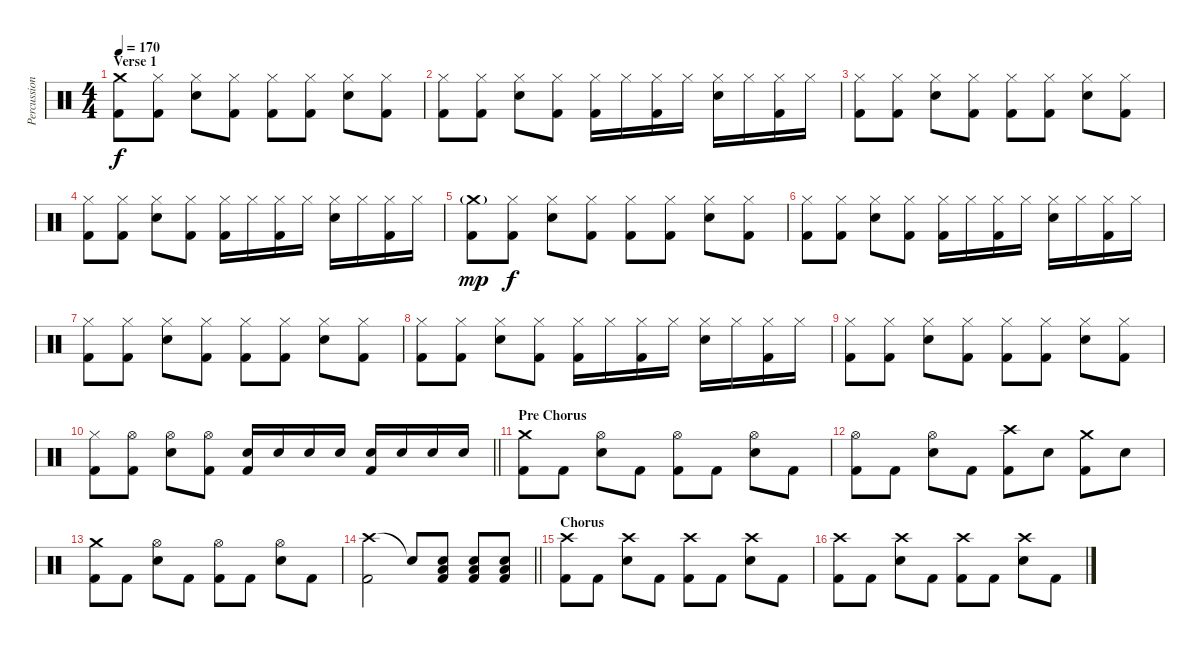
\track ("Percussion" "Percussion") {instrument percussion}
\staff {score}
\articulation defaults
\ts (4 4)
\section ("" "Verse 1")
\tempo 170
\clef neutral
\ks c
("Crash medium (hit)" "Kick (hit) 2").8{dy f} ("Hi-Hat (closed)" "Kick (hit) 2").8 ("Hi-Hat (closed)" "Electric Snare (hit)").8 ("Hi-Hat (closed)" "Kick (hit) 2").8 ("Hi-Hat (closed)" "Kick (hit) 2").8 ("Hi-Hat (closed)" "Kick (hit) 2").8 ("Hi-Hat (closed)" "Electric Snare (hit)").8 ("Hi-Hat (closed)" "Kick (hit) 2").8 |
("Hi-Hat (closed)" "Kick (hit) 2").8 ("Hi-Hat (closed)" "Kick (hit) 2").8 ("Hi-Hat (closed)" "Electric Snare (hit)").8 ("Hi-Hat (closed)" "Kick (hit) 2").8 ("Hi-Hat (closed)" "Kick (hit) 2").16 "Hi-Hat (closed)".16 ("Hi-Hat (closed)" "Kick (hit) 2").16 "Hi-Hat (closed)".16 ("Hi-Hat (closed)" "Electric Snare (hit)").16 "Hi-Hat (closed)".16 ("Hi-Hat (closed)" "Kick (hit) 2").16 "Hi-Hat (closed)".16 |
("Hi-Hat (closed)" "Kick (hit) 2").8 ("Hi-Hat (closed)" "Kick (hit) 2").8 ("Hi-Hat (closed)" "Electric Snare (hit)").8 ("Hi-Hat (closed)" "Kick (hit) 2").8 ("Hi-Hat (closed)" "Kick (hit) 2").8 ("Hi-Hat (closed)" "Kick (hit) 2").8 ("Hi-Hat (closed)" "Electric Snare (hit)").8 ("Hi-Hat (closed)" "Kick (hit) 2").8 |
("Hi-Hat (closed)" "Kick (hit) 2").8 ("Hi-Hat (closed)" "Kick (hit) 2").8 ("Hi-Hat (closed)" "Electric Snare (hit)").8 ("Hi-Hat (closed)" "Kick (hit) 2").8 ("Hi-Hat (closed)" "Kick (hit) 2").16 "Hi-Hat (closed)".16 ("Hi-Hat (closed)" "Kick (hit) 2").16 "Hi-Hat (closed)".16 ("Hi-Hat (closed)" "Electric Snare (hit)").16 "Hi-Hat (closed)".16 ("Hi-Hat (closed)" "Kick (hit) 2").16 "Hi-Hat (closed)".16 |
("Crash medium (hit)"{g} "Kick (hit) 2").8{dy mp} ("Hi-Hat (closed)" "Kick (hit) 2").8{dy f} ("Hi-Hat (closed)" "Electric Snare (hit)").8 ("Hi-Hat (closed)" "Kick (hit) 2").8 ("Hi-Hat (closed)" "Kick (hit) 2").8 ("Hi-Hat (closed)" "Kick (hit) 2").8 ("Hi-Hat (closed)" "Electric Snare (hit)").8 ("Hi-Hat (closed)" "Kick (hit) 2").8 |
("Hi-Hat (closed)" "Kick (hit) 2").8 ("Hi-Hat (closed)" "Kick (hit) 2").8 ("Hi-Hat (closed)" "Electric Snare (hit)").8 ("Hi-Hat (closed)" "Kick (hit) 2").8 ("Hi-Hat (closed)" "Kick (hit) 2").16 "Hi-Hat (closed)".16 ("Hi-Hat (closed)" "Kick (hit) 2").16 "Hi-Hat (closed)".16 ("Hi-Hat (closed)" "Electric Snare (hit)").16 "Hi-Hat (closed)".16 ("Hi-Hat (closed)" "Kick (hit) 2").16 "Hi-Hat (closed)".16 |
("Hi-Hat (closed)" "Kick (hit) 2").8 ("Hi-Hat (closed)" "Kick (hit) 2").8 ("Hi-Hat (closed)" "Electric Snare (hit)").8 ("Hi-Hat (closed)" "Kick (hit) 2").8 ("Hi-Hat (closed)" "Kick (hit) 2").8 ("Hi-Hat (closed)" "Kick (hit) 2").8 ("Hi-Hat (closed)" "Electric Snare (hit)").8 ("Hi-Hat (closed)" "Kick (hit) 2").8 |
("Hi-Hat (closed)" "Kick (hit) 2").8 ("Hi-Hat (closed)" "Kick (hit) 2").8 ("Hi-Hat (closed)" "Electric Snare (hit)").8 ("Hi-Hat (closed)" "Kick (hit) 2").8 ("Hi-Hat (closed)" "Kick (hit) 2").16 "Hi-Hat (closed)".16 ("Hi-Hat (closed)" "Kick (hit) 2").16 "Hi-Hat (closed)".16 ("Hi-Hat (closed)" "Electric Snare (hit)").16 "Hi-Hat (closed)".16 ("Hi-Hat (closed)" "Kick (hit) 2").16 "Hi-Hat (closed)".16 |
("Hi-Hat (closed)" "Kick (hit) 2").8 ("Hi-Hat (closed)" "Kick (hit) 2").8 ("Hi-Hat (closed)" "Electric Snare (hit)").8 ("Hi-Hat (closed)" "Kick (hit) 2").8 ("Hi-Hat (closed)" "Kick (hit) 2").8 ("Hi-Hat (closed)" "Kick (hit) 2").8 ("Hi-Hat (closed)" "Electric Snare (hit)").8 ("Hi-Hat (closed)" "Kick (hit) 2").8 |
\barLineRight lightlight
("Hi-Hat (closed)" "Kick (hit) 2").8 ("Hi-Hat (open)" "Kick (hit) 2").8 ("Hi-Hat (open)" "Electric Snare (hit)").8 ("Hi-Hat (open)" "Kick (hit) 2").8 ("Electric Snare (hit)" "Kick (hit) 2").16 "Electric Snare (hit)".16 "Electric Snare (hit)".16 "Electric Snare (hit)".16 ("Electric Snare (hit)" "Kick (hit) 2").16 "Electric Snare (hit)".16 "Electric Snare (hit)".16 "Electric Snare (hit)".16 |
\section ("" "Pre Chorus")
("Crash medium (hit)" "Kick (hit) 2").8 "Kick (hit) 2".8 ("Hi-Hat (open)" "Electric Snare (hit)").8 "Kick (hit) 2".8 ("Hi-Hat (open)" "Kick (hit) 2").8 "Kick (hit) 2".8 ("Hi-Hat (open)" "Electric Snare (hit)").8 "Kick (hit) 2".8 |
("Hi-Hat (open)" "Kick (hit) 2").8 "Kick (hit) 2".8 ("Hi-Hat (open)" "Electric Snare (hit)").8 "Kick (hit) 2".8 ("Crash high (hit)" "Kick (hit) 2").8 "Electric Snare (hit)".8 ("Crash medium (hit)" "Kick (hit) 2").8 "Electric Snare (hit)".8 |
("Crash medium (hit)" "Kick (hit) 2").8 "Kick (hit) 2".8 ("Hi-Hat (open)" "Electric Snare (hit)").8 "Kick (hit) 2".8 ("Hi-Hat (open)" "Kick (hit) 2").8 "Kick (hit) 2".8 ("Hi-Hat (open)" "Electric Snare (hit)").8 "Kick (hit) 2".8 |
\barLineRight lightlight
("Crash high (hit)" "Kick (hit) 2").2 "Snare (hit)"{t}.8 ("Kick (hit) 2" "Electric Snare (hit)" "Low Floor Tom (hit)").8 ("Kick (hit) 2" "Electric Snare (hit)" "Low Floor Tom (hit)").8 ("Kick (hit) 2" "Electric Snare (hit)" "Low Floor Tom (hit)").8 |
\section ("" "Chorus")
("Crash high (hit)" "Kick (hit) 2").8 "Kick (hit) 2".8 ("Crash high (hit)" "Electric Snare (hit)").8 "Kick (hit) 2".8 ("Crash high (hit)" "Kick (hit) 2").8 "Kick (hit) 2".8 ("Crash high (hit)" "Electric Snare (hit)").8 "Kick (hit) 2".8 |
("Crash high (hit)" "Kick (hit) 2").8 "Kick (hit) 2".8 ("Crash high (hit)" "Electric Snare (hit)").8 "Kick (hit) 2".8 ("Crash high (hit)" "Kick (hit) 2").8 "Kick (hit) 2".8 ("Crash high (hit)" "Electric Snare (hit)").8 "Kick (hit) 2".8
